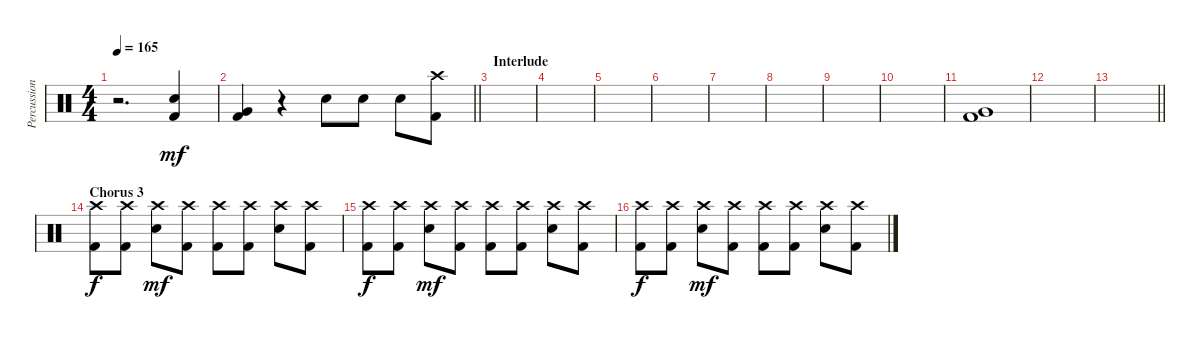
\track ("Percussion" "Percussion") {instrument percussion}
\staff {score}
\articulation defaults
\ts (4 4)
\tempo 165
\clef neutral
\ks c
r.2{d dy mf} ("Snare (hit) 2" "Kick (hit) 2").4 |
\barLineRight lightlight
("Very Low Tom (hit)" "Kick (hit) 2").4 r.4 "Snare (hit) 2".8 "Snare (hit) 2".8 "Snare (hit) 2".8 ("Crash high (hit)" "Kick (hit) 2").8 |
\section ("" "Interlude")
|
|
|
|
|
|
|
|
("Kick (hit) 2" "Very Low Tom (hit)").1 |
|
\barLineRight lightlight
|
\section ("" "Chorus 3")
("Crash high (hit)" "Kick (hit) 2").8{dy f} ("Crash high (hit)" "Kick (hit) 2").8 ("Crash high (hit)" "Snare (hit) 2").8{dy mf} ("Crash high (hit)" "Kick (hit) 2").8 ("Crash high (hit)" "Kick (hit) 2").8 ("Crash high (hit)" "Kick (hit) 2").8 ("Crash high (hit)" "Snare (hit) 2").8 ("Crash high (hit)" "Kick (hit) 2").8 |
("Crash high (hit)" "Kick (hit) 2").8{dy f} ("Crash high (hit)" "Kick (hit) 2").8 ("Crash high (hit)" "Snare (hit) 2").8{dy mf} ("Crash high (hit)" "Kick (hit) 2").8 ("Crash high (hit)" "Kick (hit) 2").8 ("Crash high (hit)" "Kick (hit) 2").8 ("Crash high (hit)" "Snare (hit) 2").8 ("Crash high (hit)" "Kick (hit) 2").8 |
("Crash high (hit)" "Kick (hit) 2").8{dy f} ("Crash high (hit)" "Kick (hit) 2").8 ("Crash high (hit)" "Snare (hit) 2").8{dy mf} ("Crash high (hit)" "Kick (hit) 2").8 ("Crash high (hit)" "Kick (hit) 2").8 ("Crash high (hit)" "Kick (hit) 2").8 ("Crash high (hit)" "Snare (hit) 2").8 ("Crash high (hit)" "Kick (hit) 2").8
